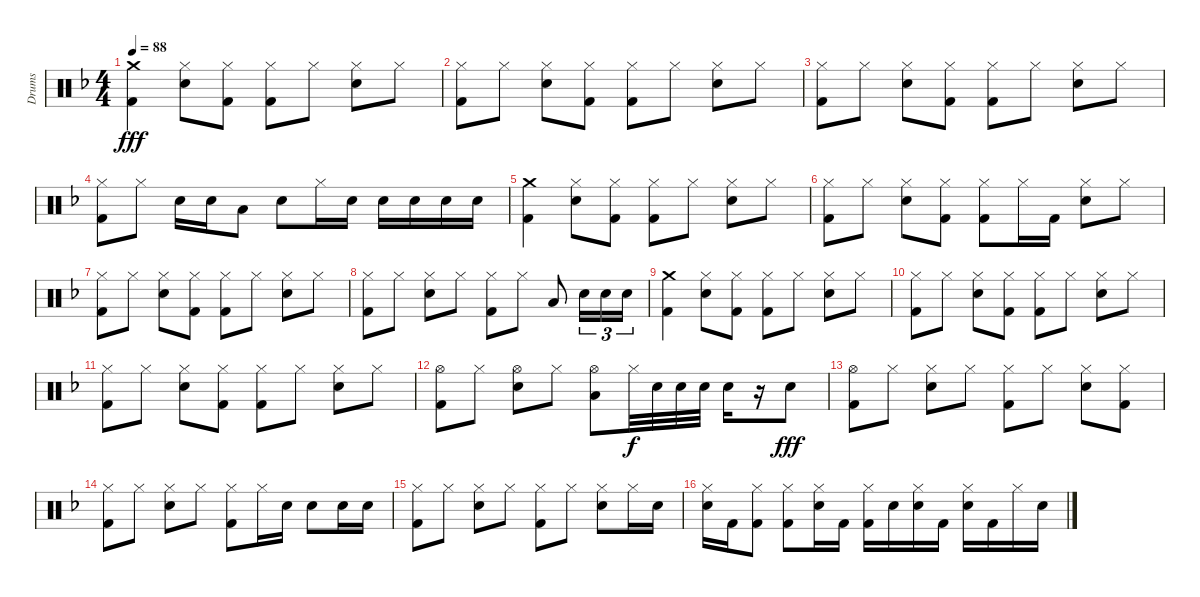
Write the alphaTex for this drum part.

\track ("Drums" "Drums") {instrument percussion}
\staff {score}
\articulation defaults
\ts (4 4)
\tempo 88
\clef neutral
\ks dminor
("Crash medium (hit)" "Kick (hit) 2").4{dy fff} ("Hi-Hat (closed)" "Snare (hit) 2").8 ("Hi-Hat (closed)" "Kick (hit) 2").8 ("Hi-Hat (closed)" "Kick (hit) 2").8 "Hi-Hat (closed)".8 ("Hi-Hat (closed)" "Snare (hit) 2").8 "Hi-Hat (closed)".8 |
("Hi-Hat (closed)" "Kick (hit) 2").8 "Hi-Hat (closed)".8 ("Hi-Hat (closed)" "Snare (hit) 2").8 ("Hi-Hat (closed)" "Kick (hit) 2").8 ("Hi-Hat (closed)" "Kick (hit) 2").8 "Hi-Hat (closed)".8 ("Hi-Hat (closed)" "Snare (hit) 2").8 "Hi-Hat (closed)".8 |
("Hi-Hat (closed)" "Kick (hit) 2").8 "Hi-Hat (closed)".8 ("Hi-Hat (closed)" "Snare (hit) 2").8 ("Hi-Hat (closed)" "Kick (hit) 2").8 ("Hi-Hat (closed)" "Kick (hit) 2").8 "Hi-Hat (closed)".8 ("Hi-Hat (closed)" "Snare (hit) 2").8 "Hi-Hat (closed)".8 |
("Hi-Hat (closed)" "Kick (hit) 2").8 "Hi-Hat (closed)".8 "Snare (hit) 2".16 "Snare (hit) 2".16 "Low Tom (hit)".8 "Snare (hit) 2".8 "Hi-Hat (closed)".16 "Snare (hit) 2".16 "Snare (hit) 2".16 "Snare (hit) 2".16 "Snare (hit) 2".16 "Snare (hit) 2".16 |
("Crash medium (hit)" "Kick (hit) 2").4 ("Hi-Hat (closed)" "Snare (hit) 2").8 ("Hi-Hat (closed)" "Kick (hit) 2").8 ("Hi-Hat (closed)" "Kick (hit) 2").8 "Hi-Hat (closed)".8 ("Hi-Hat (closed)" "Snare (hit) 2").8 "Hi-Hat (closed)".8 |
("Hi-Hat (closed)" "Kick (hit) 2").8 "Hi-Hat (closed)".8 ("Hi-Hat (closed)" "Snare (hit) 2").8 ("Hi-Hat (closed)" "Kick (hit) 2").8 ("Hi-Hat (closed)" "Kick (hit) 2").8 "Hi-Hat (closed)".16 "Kick (hit) 2".16 ("Hi-Hat (closed)" "Snare (hit) 2").8 "Hi-Hat (closed)".8 |
("Hi-Hat (closed)" "Kick (hit) 2").8 "Hi-Hat (closed)".8 ("Hi-Hat (closed)" "Snare (hit) 2").8 ("Hi-Hat (closed)" "Kick (hit) 2").8 ("Hi-Hat (closed)" "Kick (hit) 2").8 "Hi-Hat (closed)".8 ("Hi-Hat (closed)" "Snare (hit) 2").8 "Hi-Hat (closed)".8 |
("Hi-Hat (closed)" "Kick (hit) 2").8 "Hi-Hat (closed)".8 ("Hi-Hat (closed)" "Snare (hit) 2").8 "Hi-Hat (closed)".8 ("Hi-Hat (closed)" "Kick (hit) 2").8 "Hi-Hat (closed)".8 "Low Tom (hit)".8 "Snare (hit) 2".16{tu (3 2)} "Snare (hit) 2".16{tu (3 2)} "Snare (hit) 2".16{tu (3 2)} |
("Crash medium (hit)" "Kick (hit) 2").4 ("Hi-Hat (closed)" "Snare (hit) 2").8 ("Hi-Hat (closed)" "Kick (hit) 2").8 ("Hi-Hat (closed)" "Kick (hit) 2").8 "Hi-Hat (closed)".8 ("Hi-Hat (closed)" "Snare (hit) 2").8 "Hi-Hat (closed)".8 |
("Hi-Hat (closed)" "Kick (hit) 2").8 "Hi-Hat (closed)".8 ("Hi-Hat (closed)" "Snare (hit) 2").8 ("Hi-Hat (closed)" "Kick (hit) 2").8 ("Hi-Hat (closed)" "Kick (hit) 2").8 "Hi-Hat (closed)".8 ("Hi-Hat (closed)" "Snare (hit) 2").8 "Hi-Hat (closed)".8 |
("Hi-Hat (closed)" "Kick (hit) 2").8 "Hi-Hat (closed)".8 ("Hi-Hat (closed)" "Snare (hit) 2").8 ("Hi-Hat (closed)" "Kick (hit) 2").8 ("Hi-Hat (closed)" "Kick (hit) 2").8 "Hi-Hat (closed)".8 ("Hi-Hat (closed)" "Snare (hit) 2").8 "Hi-Hat (closed)".8 |
("Hi-Hat (open)" "Kick (hit) 2").8 "Hi-Hat (closed)".8 ("Hi-Hat (open)" "Snare (hit) 2").8 "Hi-Hat (closed)".8 ("Hi-Hat (open)" "Low Tom (hit)").8 "Hi-Hat (closed)".32{dy f} "Snare (hit) 2".32 "Snare (hit) 2".32 "Snare (hit) 2".32 "Snare (hit) 2".16 r.16 "Snare (hit) 2".8{dy fff} |
("Hi-Hat (open)" "Kick (hit) 2").8 "Hi-Hat (closed)".8 ("Hi-Hat (closed)" "Snare (hit) 2").8 "Hi-Hat (closed)".8 ("Hi-Hat (closed)" "Kick (hit) 2").8 "Hi-Hat (closed)".8 ("Hi-Hat (closed)" "Snare (hit) 2").8 ("Hi-Hat (closed)" "Kick (hit) 2").8 |
("Hi-Hat (closed)" "Kick (hit) 2").8 "Hi-Hat (closed)".8 ("Hi-Hat (closed)" "Snare (hit) 2").8 "Hi-Hat (closed)".8 ("Hi-Hat (closed)" "Kick (hit) 2").8 "Hi-Hat (closed)".16 "Snare (hit) 2".16 "Snare (hit) 2".8 "Snare (hit) 2".16 "Snare (hit) 2".16 |
("Hi-Hat (closed)" "Kick (hit) 2").8 "Hi-Hat (closed)".8 ("Hi-Hat (closed)" "Snare (hit) 2").8 "Hi-Hat (closed)".8 ("Hi-Hat (closed)" "Kick (hit) 2").8 "Hi-Hat (closed)".8 ("Hi-Hat (closed)" "Snare (hit) 2").8 "Hi-Hat (closed)".16 "Snare (hit) 2".16 |
("Hi-Hat (closed)" "Snare (hit) 2").16 "Kick (hit) 2".16 ("Hi-Hat (closed)" "Kick (hit) 2").8 ("Hi-Hat (closed)" "Kick (hit) 2").8 ("Hi-Hat (closed)" "Snare (hit) 2").16 "Kick (hit) 2".16 ("Hi-Hat (closed)" "Kick (hit) 2").16 "Snare (hit) 2".16 ("Hi-Hat (closed)" "Snare (hit) 2").16 "Kick (hit) 2".16 ("Hi-Hat (closed)" "Snare (hit) 2").16 "Kick (hit) 2".16 "Hi-Hat (closed)".16 "Snare (hit) 2".16
